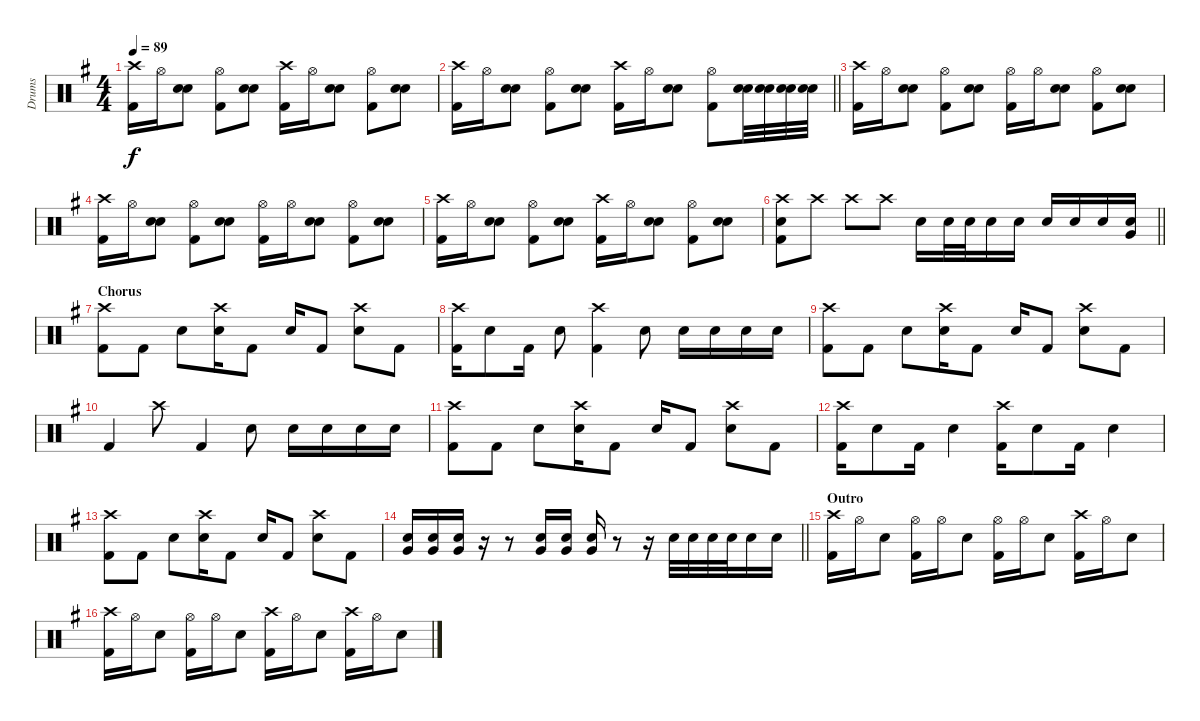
\track ("Drums" "Drums") {instrument percussion}
\staff {score}
\articulation defaults
\ts (4 4)
\tempo 89
\clef neutral
\ks g
("Kick (hit) 2" "Crash high (hit)").16{dy f} "Hi-Hat (open)".16 ("Electric Snare (hit)" "Electric Snare (hit)").8 ("Kick (hit) 2" "Hi-Hat (open)").8 ("Electric Snare (hit)" "Electric Snare (hit)").8 ("Kick (hit) 2" "Crash high (hit)").16 "Hi-Hat (open)".16 ("Electric Snare (hit)" "Electric Snare (hit)").8 ("Kick (hit) 2" "Hi-Hat (open)").8 ("Electric Snare (hit)" "Electric Snare (hit)").8 |
\barLineRight lightlight
("Kick (hit) 2" "Crash high (hit)").16 "Hi-Hat (open)".16 ("Electric Snare (hit)" "Electric Snare (hit)").8 ("Kick (hit) 2" "Hi-Hat (open)").8 ("Electric Snare (hit)" "Electric Snare (hit)").8 ("Kick (hit) 2" "Crash high (hit)").16 "Hi-Hat (open)".16 ("Electric Snare (hit)" "Electric Snare (hit)").8 ("Kick (hit) 2" "Hi-Hat (open)").8 ("Electric Snare (hit)" "Electric Snare (hit)").32 ("Electric Snare (hit)" "Electric Snare (hit)").32 ("Electric Snare (hit)" "Electric Snare (hit)").32 ("Electric Snare (hit)" "Electric Snare (hit)").32 |
("Kick (hit) 2" "Crash high (hit)").16 "Hi-Hat (open)".16 ("Electric Snare (hit)" "Electric Snare (hit)").8 ("Kick (hit) 2" "Hi-Hat (open)").8 ("Electric Snare (hit)" "Electric Snare (hit)").8 ("Kick (hit) 2" "Hi-Hat (open)").16 "Hi-Hat (open)".16 ("Electric Snare (hit)" "Electric Snare (hit)").8 ("Kick (hit) 2" "Hi-Hat (open)").8 ("Electric Snare (hit)" "Electric Snare (hit)").8 |
("Kick (hit) 2" "Crash high (hit)").16 "Hi-Hat (open)".16 ("Electric Snare (hit)" "Electric Snare (hit)").8 ("Kick (hit) 2" "Hi-Hat (open)").8 ("Electric Snare (hit)" "Electric Snare (hit)").8 ("Kick (hit) 2" "Hi-Hat (open)").16 "Hi-Hat (open)".16 ("Electric Snare (hit)" "Electric Snare (hit)").8 ("Kick (hit) 2" "Hi-Hat (open)").8 ("Electric Snare (hit)" "Electric Snare (hit)").8 |
("Kick (hit) 2" "Crash high (hit)").16 "Hi-Hat (open)".16 ("Electric Snare (hit)" "Electric Snare (hit)").8 ("Kick (hit) 2" "Hi-Hat (open)").8 ("Electric Snare (hit)" "Electric Snare (hit)").8 ("Kick (hit) 2" "Crash high (hit)").16 "Hi-Hat (open)".16 ("Electric Snare (hit)" "Electric Snare (hit)").8 ("Kick (hit) 2" "Hi-Hat (open)").8 ("Electric Snare (hit)" "Electric Snare (hit)").8 |
\barLineRight lightlight
("Kick (hit) 2" "Electric Snare (hit)" "Crash high (hit)").8 "Crash high (hit)".8 "Crash high (hit)".8 "Crash high (hit)".8 "Electric Snare (hit)".16 "Electric Snare (hit)".32 "Electric Snare (hit)".32 "Electric Snare (hit)".16 "Electric Snare (hit)".16 "Electric Snare (hit)".16 "Electric Snare (hit)".16 "Electric Snare (hit)".16 ("Very Low Tom (hit)" "Electric Snare (hit)").16 |
\section ("" "Chorus")
("Kick (hit) 2" "Crash high (hit)").8 "Kick (hit) 2".8 "Electric Snare (hit)".8 ("Electric Snare (hit)" "Crash high (hit)").16 "Kick (hit) 2".8 "Electric Snare (hit)".16 "Kick (hit) 2".8 ("Electric Snare (hit)" "Crash high (hit)").8 "Kick (hit) 2".8 |
("Kick (hit) 2" "Crash high (hit)").16 "Electric Snare (hit)".8 "Kick (hit) 2".16 "Electric Snare (hit)".8 ("Kick (hit) 2" "Crash high (hit)").4 "Electric Snare (hit)".8 "Electric Snare (hit)".16 "Electric Snare (hit)".16 "Electric Snare (hit)".16 "Electric Snare (hit)".16 |
("Kick (hit) 2" "Crash high (hit)").8 "Kick (hit) 2".8 "Electric Snare (hit)".8 ("Electric Snare (hit)" "Crash high (hit)").16 "Kick (hit) 2".8 "Electric Snare (hit)".16 "Kick (hit) 2".8 ("Electric Snare (hit)" "Crash high (hit)").8 "Kick (hit) 2".8 |
"Kick (hit) 2".4 "Crash high (hit)".8 "Kick (hit) 2".4 "Electric Snare (hit)".8 "Electric Snare (hit)".16 "Electric Snare (hit)".16 "Electric Snare (hit)".16 "Electric Snare (hit)".16 |
("Kick (hit) 2" "Crash high (hit)").8 "Kick (hit) 2".8 "Electric Snare (hit)".8 ("Electric Snare (hit)" "Crash high (hit)").16 "Kick (hit) 2".8 "Electric Snare (hit)".16 "Kick (hit) 2".8 ("Electric Snare (hit)" "Crash high (hit)").8 "Kick (hit) 2".8 |
("Kick (hit) 2" "Crash high (hit)").16 "Electric Snare (hit)".8 "Kick (hit) 2".16 "Electric Snare (hit)".4 ("Kick (hit) 2" "Crash high (hit)").16 "Electric Snare (hit)".8 "Kick (hit) 2".16 "Electric Snare (hit)".4 |
("Kick (hit) 2" "Crash high (hit)").8 "Kick (hit) 2".8 "Electric Snare (hit)".8 ("Electric Snare (hit)" "Crash high (hit)").16 "Kick (hit) 2".8 "Electric Snare (hit)".16 "Kick (hit) 2".8 ("Electric Snare (hit)" "Crash high (hit)").8 "Kick (hit) 2".8 |
\barLineRight lightlight
("Very Low Tom (hit)" "Electric Snare (hit)").16 ("Very Low Tom (hit)" "Electric Snare (hit)").16 ("Very Low Tom (hit)" "Electric Snare (hit)").16 r.16 r.8 ("Very Low Tom (hit)" "Electric Snare (hit)").16 ("Very Low Tom (hit)" "Electric Snare (hit)").16 ("Very Low Tom (hit)" "Electric Snare (hit)").16 r.8 r.16 "Electric Snare (hit)".32 "Electric Snare (hit)".32 "Electric Snare (hit)".32 "Electric Snare (hit)".32 "Electric Snare (hit)".16 "Electric Snare (hit)".16 |
\section ("" "Outro")
("Kick (hit) 2" "Crash high (hit)").16 "Hi-Hat (open)".16 "Electric Snare (hit)".8 ("Kick (hit) 2" "Hi-Hat (open)").16 "Hi-Hat (open)".16 "Electric Snare (hit)".8 ("Kick (hit) 2" "Hi-Hat (open)").16 "Hi-Hat (open)".16 "Electric Snare (hit)".8 ("Kick (hit) 2" "Crash high (hit)").16 "Hi-Hat (open)".16 "Electric Snare (hit)".8 |
("Kick (hit) 2" "Crash high (hit)").16 "Hi-Hat (open)".16 "Electric Snare (hit)".8 ("Kick (hit) 2" "Hi-Hat (open)").16 "Hi-Hat (open)".16 "Electric Snare (hit)".8 ("Kick (hit) 2" "Crash high (hit)").16 "Hi-Hat (open)".16 "Electric Snare (hit)".8 ("Kick (hit) 2" "Crash high (hit)").16 "Hi-Hat (open)".16 "Electric Snare (hit)".8
